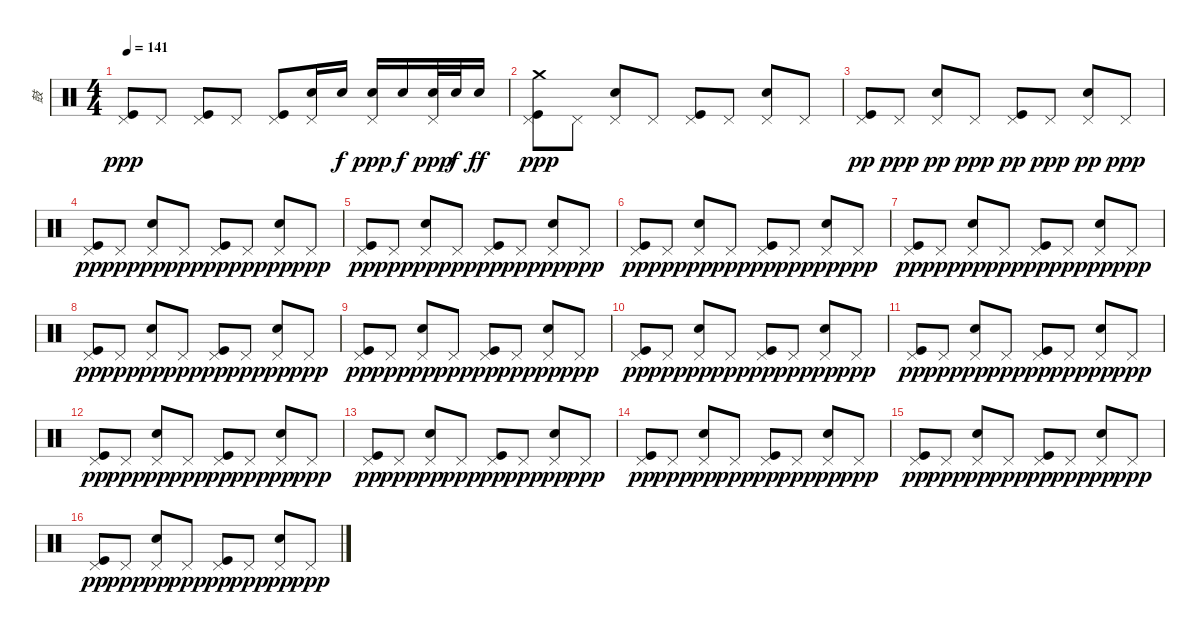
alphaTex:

\track ("鼓" "鼓") {instrument percussion}
\staff {score}
\articulation defaults
\ts (4 4)
\tempo 141
\clef neutral
\ks c
("Kick (hit)" "Pedal Hi-Hat (hit)").8{dy ppp} "Pedal Hi-Hat (hit)".8 ("Kick (hit)" "Pedal Hi-Hat (hit)").8 "Pedal Hi-Hat (hit)".8 ("Kick (hit)" "Pedal Hi-Hat (hit)").8 ("Snare (hit) 2" "Pedal Hi-Hat (hit)").16 "Snare (hit) 2".16{dy f} ("Snare (hit) 2" "Pedal Hi-Hat (hit)").16{dy ppp} "Snare (hit) 2".16{dy f} ("Snare (hit) 2" "Pedal Hi-Hat (hit)").32{dy ppp} "Snare (hit) 2".32{dy f} "Snare (hit) 2".16{dy ff} |
("Crash medium (hit)" "Kick (hit)" "Pedal Hi-Hat (hit)").8{dy ppp} "Pedal Hi-Hat (hit)".8 ("Snare (hit) 2" "Pedal Hi-Hat (hit)").8 "Pedal Hi-Hat (hit)".8 ("Kick (hit)" "Pedal Hi-Hat (hit)").8 "Pedal Hi-Hat (hit)".8 ("Snare (hit) 2" "Pedal Hi-Hat (hit)").8 "Pedal Hi-Hat (hit)".8 |
("Kick (hit)" "Pedal Hi-Hat (hit)").8{dy pp} "Pedal Hi-Hat (hit)".8{dy ppp} ("Snare (hit) 2" "Pedal Hi-Hat (hit)").8{dy pp} "Pedal Hi-Hat (hit)".8{dy ppp} ("Kick (hit)" "Pedal Hi-Hat (hit)").8{dy pp} "Pedal Hi-Hat (hit)".8{dy ppp} ("Snare (hit) 2" "Pedal Hi-Hat (hit)").8{dy pp} "Pedal Hi-Hat (hit)".8{dy ppp} |
("Kick (hit)" "Pedal Hi-Hat (hit)").8{dy pp} "Pedal Hi-Hat (hit)".8{dy ppp} ("Snare (hit) 2" "Pedal Hi-Hat (hit)").8{dy pp} "Pedal Hi-Hat (hit)".8{dy ppp} ("Kick (hit)" "Pedal Hi-Hat (hit)").8{dy pp} "Pedal Hi-Hat (hit)".8{dy ppp} ("Snare (hit) 2" "Pedal Hi-Hat (hit)").8{dy pp} "Pedal Hi-Hat (hit)".8{dy ppp} |
("Kick (hit)" "Pedal Hi-Hat (hit)").8{dy pp} "Pedal Hi-Hat (hit)".8{dy ppp} ("Snare (hit) 2" "Pedal Hi-Hat (hit)").8{dy pp} "Pedal Hi-Hat (hit)".8{dy ppp} ("Kick (hit)" "Pedal Hi-Hat (hit)").8{dy pp} "Pedal Hi-Hat (hit)".8{dy ppp} ("Snare (hit) 2" "Pedal Hi-Hat (hit)").8{dy pp} "Pedal Hi-Hat (hit)".8{dy ppp} |
("Kick (hit)" "Pedal Hi-Hat (hit)").8{dy pp} "Pedal Hi-Hat (hit)".8{dy ppp} ("Snare (hit) 2" "Pedal Hi-Hat (hit)").8{dy pp} "Pedal Hi-Hat (hit)".8{dy ppp} ("Kick (hit)" "Pedal Hi-Hat (hit)").8{dy pp} "Pedal Hi-Hat (hit)".8{dy ppp} ("Snare (hit) 2" "Pedal Hi-Hat (hit)").8{dy pp} "Pedal Hi-Hat (hit)".8{dy ppp} |
("Kick (hit)" "Pedal Hi-Hat (hit)").8{dy pp} "Pedal Hi-Hat (hit)".8{dy ppp} ("Snare (hit) 2" "Pedal Hi-Hat (hit)").8{dy pp} "Pedal Hi-Hat (hit)".8{dy ppp} ("Kick (hit)" "Pedal Hi-Hat (hit)").8{dy pp} "Pedal Hi-Hat (hit)".8{dy ppp} ("Snare (hit) 2" "Pedal Hi-Hat (hit)").8{dy pp} "Pedal Hi-Hat (hit)".8{dy ppp} |
("Kick (hit)" "Pedal Hi-Hat (hit)").8{dy pp} "Pedal Hi-Hat (hit)".8{dy ppp} ("Snare (hit) 2" "Pedal Hi-Hat (hit)").8{dy pp} "Pedal Hi-Hat (hit)".8{dy ppp} ("Kick (hit)" "Pedal Hi-Hat (hit)").8{dy pp} "Pedal Hi-Hat (hit)".8{dy ppp} ("Snare (hit) 2" "Pedal Hi-Hat (hit)").8{dy pp} "Pedal Hi-Hat (hit)".8{dy ppp} |
("Kick (hit)" "Pedal Hi-Hat (hit)").8{dy pp} "Pedal Hi-Hat (hit)".8{dy ppp} ("Snare (hit) 2" "Pedal Hi-Hat (hit)").8{dy pp} "Pedal Hi-Hat (hit)".8{dy ppp} ("Kick (hit)" "Pedal Hi-Hat (hit)").8{dy pp} "Pedal Hi-Hat (hit)".8{dy ppp} ("Snare (hit) 2" "Pedal Hi-Hat (hit)").8{dy pp} "Pedal Hi-Hat (hit)".8{dy ppp} |
("Kick (hit)" "Pedal Hi-Hat (hit)").8{dy pp} "Pedal Hi-Hat (hit)".8{dy ppp} ("Snare (hit) 2" "Pedal Hi-Hat (hit)").8{dy pp} "Pedal Hi-Hat (hit)".8{dy ppp} ("Kick (hit)" "Pedal Hi-Hat (hit)").8{dy pp} "Pedal Hi-Hat (hit)".8{dy ppp} ("Snare (hit) 2" "Pedal Hi-Hat (hit)").8{dy pp} "Pedal Hi-Hat (hit)".8{dy ppp} |
("Kick (hit)" "Pedal Hi-Hat (hit)").8{dy pp} "Pedal Hi-Hat (hit)".8{dy ppp} ("Snare (hit) 2" "Pedal Hi-Hat (hit)").8{dy pp} "Pedal Hi-Hat (hit)".8{dy ppp} ("Kick (hit)" "Pedal Hi-Hat (hit)").8{dy pp} "Pedal Hi-Hat (hit)".8{dy ppp} ("Snare (hit) 2" "Pedal Hi-Hat (hit)").8{dy pp} "Pedal Hi-Hat (hit)".8{dy ppp} |
("Kick (hit)" "Pedal Hi-Hat (hit)").8{dy pp} "Pedal Hi-Hat (hit)".8{dy ppp} ("Snare (hit) 2" "Pedal Hi-Hat (hit)").8{dy pp} "Pedal Hi-Hat (hit)".8{dy ppp} ("Kick (hit)" "Pedal Hi-Hat (hit)").8{dy pp} "Pedal Hi-Hat (hit)".8{dy ppp} ("Snare (hit) 2" "Pedal Hi-Hat (hit)").8{dy pp} "Pedal Hi-Hat (hit)".8{dy ppp} |
("Kick (hit)" "Pedal Hi-Hat (hit)").8{dy pp} "Pedal Hi-Hat (hit)".8{dy ppp} ("Snare (hit) 2" "Pedal Hi-Hat (hit)").8{dy pp} "Pedal Hi-Hat (hit)".8{dy ppp} ("Kick (hit)" "Pedal Hi-Hat (hit)").8{dy pp} "Pedal Hi-Hat (hit)".8{dy ppp} ("Snare (hit) 2" "Pedal Hi-Hat (hit)").8{dy pp} "Pedal Hi-Hat (hit)".8{dy ppp} |
("Kick (hit)" "Pedal Hi-Hat (hit)").8{dy pp} "Pedal Hi-Hat (hit)".8{dy ppp} ("Snare (hit) 2" "Pedal Hi-Hat (hit)").8{dy pp} "Pedal Hi-Hat (hit)".8{dy ppp} ("Kick (hit)" "Pedal Hi-Hat (hit)").8{dy pp} "Pedal Hi-Hat (hit)".8{dy ppp} ("Snare (hit) 2" "Pedal Hi-Hat (hit)").8{dy pp} "Pedal Hi-Hat (hit)".8{dy ppp} |
("Kick (hit)" "Pedal Hi-Hat (hit)").8{dy pp} "Pedal Hi-Hat (hit)".8{dy ppp} ("Snare (hit) 2" "Pedal Hi-Hat (hit)").8{dy pp} "Pedal Hi-Hat (hit)".8{dy ppp} ("Kick (hit)" "Pedal Hi-Hat (hit)").8{dy pp} "Pedal Hi-Hat (hit)".8{dy ppp} ("Snare (hit) 2" "Pedal Hi-Hat (hit)").8{dy pp} "Pedal Hi-Hat (hit)".8{dy ppp} |
("Kick (hit)" "Pedal Hi-Hat (hit)").8{dy pp} "Pedal Hi-Hat (hit)".8{dy ppp} ("Snare (hit) 2" "Pedal Hi-Hat (hit)").8{dy pp} "Pedal Hi-Hat (hit)".8{dy ppp} ("Kick (hit)" "Pedal Hi-Hat (hit)").8{dy pp} "Pedal Hi-Hat (hit)".8{dy ppp} ("Snare (hit) 2" "Pedal Hi-Hat (hit)").8{dy pp} "Pedal Hi-Hat (hit)".8{dy ppp}
